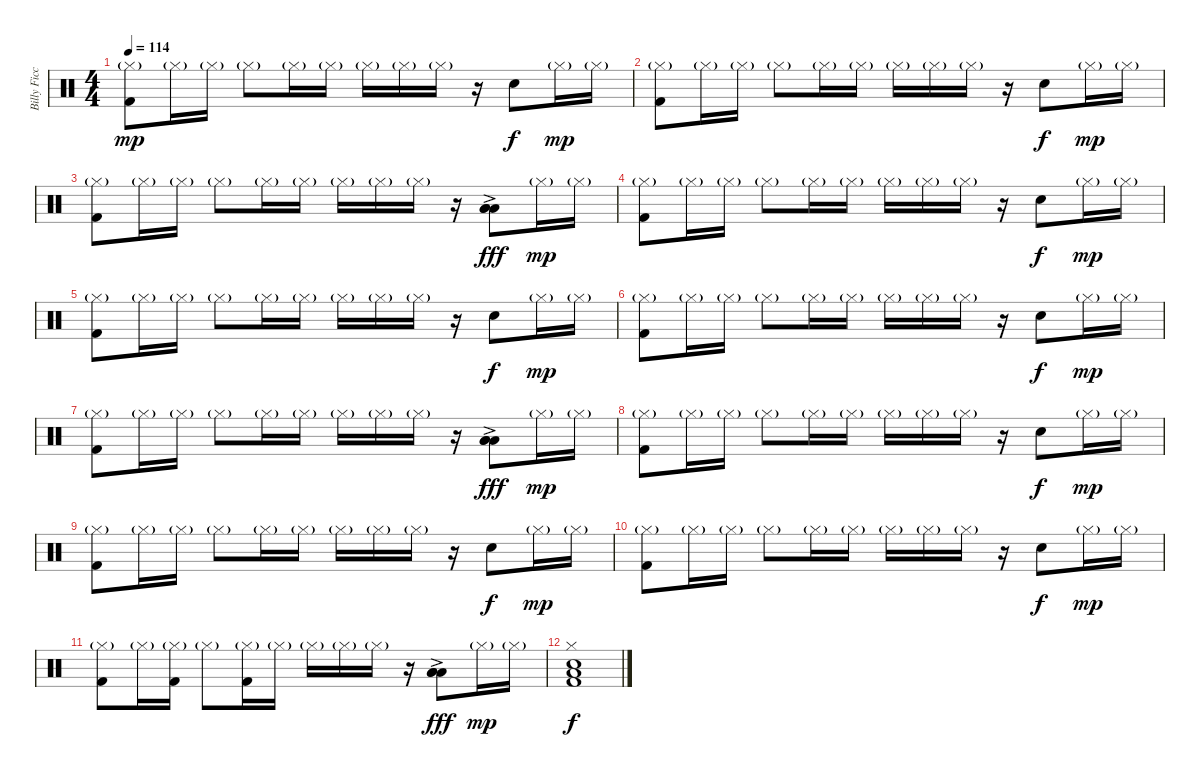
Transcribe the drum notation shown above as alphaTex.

\track ("Billy Ficca" "Billy Ficc") {instrument percussion}
\staff {score}
\articulation defaults
\ts (4 4)
\tempo 114
\clef neutral
\ks c
("Hi-Hat (closed)"{g} "Kick (hit) 2").8{dy mp} "Hi-Hat (closed)"{g}.16 "Hi-Hat (closed)"{g}.16 "Hi-Hat (closed)"{g}.8 "Hi-Hat (closed)"{g}.16 "Hi-Hat (closed)"{g}.16 "Hi-Hat (closed)"{g}.16 "Hi-Hat (closed)"{g}.16 "Hi-Hat (closed)"{g}.16 r.16 "Electric Snare (hit)".8{dy f} "Hi-Hat (closed)"{g}.16{dy mp} "Hi-Hat (closed)"{g}.16 |
("Hi-Hat (closed)"{g} "Kick (hit) 2").8 "Hi-Hat (closed)"{g}.16 "Hi-Hat (closed)"{g}.16 "Hi-Hat (closed)"{g}.8 "Hi-Hat (closed)"{g}.16 "Hi-Hat (closed)"{g}.16 "Hi-Hat (closed)"{g}.16 "Hi-Hat (closed)"{g}.16 "Hi-Hat (closed)"{g}.16 r.16 "Electric Snare (hit)".8{dy f} "Hi-Hat (closed)"{g}.16{dy mp} "Hi-Hat (closed)"{g}.16 |
("Hi-Hat (closed)"{g} "Kick (hit) 2").8 "Hi-Hat (closed)"{g}.16 "Hi-Hat (closed)"{g}.16 "Hi-Hat (closed)"{g}.8 "Hi-Hat (closed)"{g}.16 "Hi-Hat (closed)"{g}.16 "Hi-Hat (closed)"{g}.16 "Hi-Hat (closed)"{g}.16 "Hi-Hat (closed)"{g}.16 r.16 ("Low Floor Tom (hit)" "Low Floor Tom (hit)" "Low Floor Tom (hit)"{ac}).8{dy fff} "Hi-Hat (closed)"{g}.16{dy mp} "Hi-Hat (closed)"{g}.16 |
("Hi-Hat (closed)"{g} "Kick (hit) 2").8 "Hi-Hat (closed)"{g}.16 "Hi-Hat (closed)"{g}.16 "Hi-Hat (closed)"{g}.8 "Hi-Hat (closed)"{g}.16 "Hi-Hat (closed)"{g}.16 "Hi-Hat (closed)"{g}.16 "Hi-Hat (closed)"{g}.16 "Hi-Hat (closed)"{g}.16 r.16 "Electric Snare (hit)".8{dy f} "Hi-Hat (closed)"{g}.16{dy mp} "Hi-Hat (closed)"{g}.16 |
("Hi-Hat (closed)"{g} "Kick (hit) 2").8 "Hi-Hat (closed)"{g}.16 "Hi-Hat (closed)"{g}.16 "Hi-Hat (closed)"{g}.8 "Hi-Hat (closed)"{g}.16 "Hi-Hat (closed)"{g}.16 "Hi-Hat (closed)"{g}.16 "Hi-Hat (closed)"{g}.16 "Hi-Hat (closed)"{g}.16 r.16 "Electric Snare (hit)".8{dy f} "Hi-Hat (closed)"{g}.16{dy mp} "Hi-Hat (closed)"{g}.16 |
("Hi-Hat (closed)"{g} "Kick (hit) 2").8 "Hi-Hat (closed)"{g}.16 "Hi-Hat (closed)"{g}.16 "Hi-Hat (closed)"{g}.8 "Hi-Hat (closed)"{g}.16 "Hi-Hat (closed)"{g}.16 "Hi-Hat (closed)"{g}.16 "Hi-Hat (closed)"{g}.16 "Hi-Hat (closed)"{g}.16 r.16 "Electric Snare (hit)".8{dy f} "Hi-Hat (closed)"{g}.16{dy mp} "Hi-Hat (closed)"{g}.16 |
("Hi-Hat (closed)"{g} "Kick (hit) 2").8 "Hi-Hat (closed)"{g}.16 "Hi-Hat (closed)"{g}.16 "Hi-Hat (closed)"{g}.8 "Hi-Hat (closed)"{g}.16 "Hi-Hat (closed)"{g}.16 "Hi-Hat (closed)"{g}.16 "Hi-Hat (closed)"{g}.16 "Hi-Hat (closed)"{g}.16 r.16 ("Low Floor Tom (hit)" "Low Floor Tom (hit)" "Low Floor Tom (hit)"{ac}).8{dy fff} "Hi-Hat (closed)"{g}.16{dy mp} "Hi-Hat (closed)"{g}.16 |
("Hi-Hat (closed)"{g} "Kick (hit) 2").8 "Hi-Hat (closed)"{g}.16 "Hi-Hat (closed)"{g}.16 "Hi-Hat (closed)"{g}.8 "Hi-Hat (closed)"{g}.16 "Hi-Hat (closed)"{g}.16 "Hi-Hat (closed)"{g}.16 "Hi-Hat (closed)"{g}.16 "Hi-Hat (closed)"{g}.16 r.16 "Electric Snare (hit)".8{dy f} "Hi-Hat (closed)"{g}.16{dy mp} "Hi-Hat (closed)"{g}.16 |
("Hi-Hat (closed)"{g} "Kick (hit) 2").8 "Hi-Hat (closed)"{g}.16 "Hi-Hat (closed)"{g}.16 "Hi-Hat (closed)"{g}.8 "Hi-Hat (closed)"{g}.16 "Hi-Hat (closed)"{g}.16 "Hi-Hat (closed)"{g}.16 "Hi-Hat (closed)"{g}.16 "Hi-Hat (closed)"{g}.16 r.16 "Electric Snare (hit)".8{dy f} "Hi-Hat (closed)"{g}.16{dy mp} "Hi-Hat (closed)"{g}.16 |
("Hi-Hat (closed)"{g} "Kick (hit) 2").8 "Hi-Hat (closed)"{g}.16 "Hi-Hat (closed)"{g}.16 "Hi-Hat (closed)"{g}.8 "Hi-Hat (closed)"{g}.16 "Hi-Hat (closed)"{g}.16 "Hi-Hat (closed)"{g}.16 "Hi-Hat (closed)"{g}.16 "Hi-Hat (closed)"{g}.16 r.16 "Electric Snare (hit)".8{dy f} "Hi-Hat (closed)"{g}.16{dy mp} "Hi-Hat (closed)"{g}.16 |
("Hi-Hat (closed)"{g} "Kick (hit) 2").8 "Hi-Hat (closed)"{g}.16 ("Hi-Hat (closed)"{g} "Kick (hit) 2").16 "Hi-Hat (closed)"{g}.8 ("Hi-Hat (closed)"{g} "Kick (hit) 2").16 "Hi-Hat (closed)"{g}.16 "Hi-Hat (closed)"{g}.16 "Hi-Hat (closed)"{g}.16 "Hi-Hat (closed)"{g}.16 r.16 ("Low Tom (hit)"{ac} "Low Floor Tom (hit)" "Low Floor Tom (hit)").8{dy fff} "Hi-Hat (closed)"{g}.16{dy mp} "Hi-Hat (closed)"{g}.16 |
("Hi-Hat (closed)" "Electric Snare (hit)" "Low Tom (hit)" "Kick (hit) 2").1{dy f}
